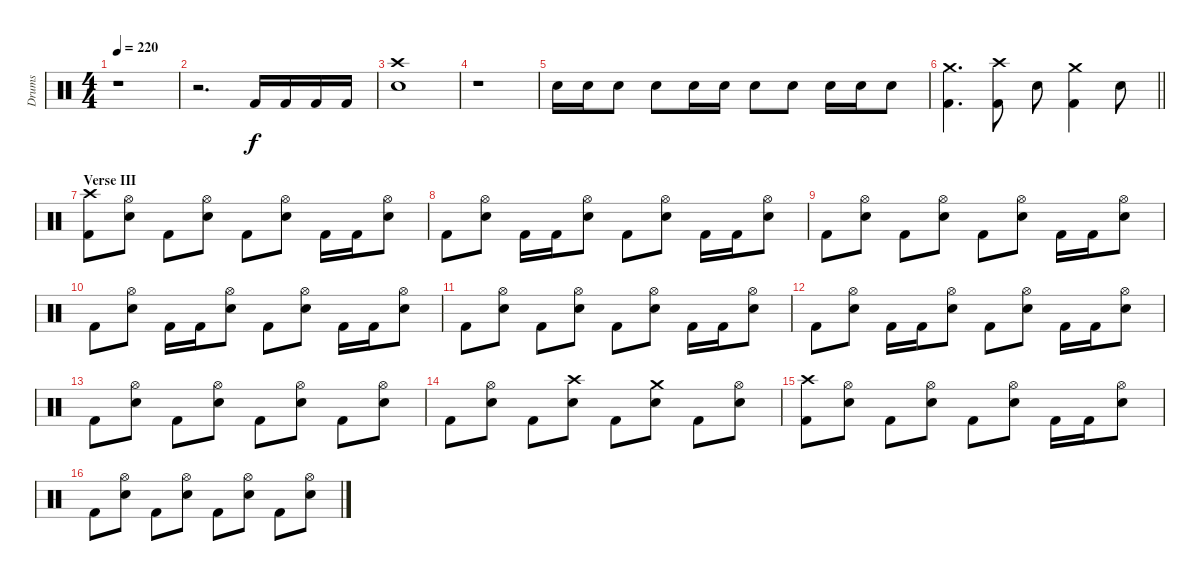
\track ("Drums" "Drums") {instrument percussion}
\staff {score}
\articulation defaults
\ts (4 4)
\tempo 220
\clef neutral
\ks c
r.1{dy f} |
r.2{d} "Kick (hit) 2".16 "Kick (hit) 2".16 "Kick (hit) 2".16 "Kick (hit) 2".16 |
("Crash high (hit)" "Snare (hit) 2").1 |
r.1 |
"Snare (hit) 2".16 "Snare (hit) 2".16 "Snare (hit) 2".8 "Snare (hit) 2".8 "Snare (hit) 2".16 "Snare (hit) 2".16 "Snare (hit) 2".8 "Snare (hit) 2".8 "Snare (hit) 2".16 "Snare (hit) 2".16 "Snare (hit) 2".8 |
\barLineRight lightlight
("Crash medium (hit)" "Kick (hit) 2").4{d} ("Crash high (hit)" "Kick (hit) 2").8 "Snare (hit) 2".8 ("Crash medium (hit)" "Kick (hit) 2").4 "Snare (hit) 2".8 |
\section ("" "Verse III")
("Crash high (hit)" "Kick (hit) 2").8 ("Hi-Hat (open)" "Snare (hit) 2").8 "Kick (hit) 2".8 ("Hi-Hat (open)" "Snare (hit) 2").8 "Kick (hit) 2".8 ("Hi-Hat (open)" "Snare (hit) 2").8 "Kick (hit) 2".16 "Kick (hit) 2".16 ("Hi-Hat (open)" "Snare (hit) 2").8 |
"Kick (hit) 2".8 ("Hi-Hat (open)" "Snare (hit) 2").8 "Kick (hit) 2".16 "Kick (hit) 2".16 ("Hi-Hat (open)" "Snare (hit) 2").8 "Kick (hit) 2".8 ("Hi-Hat (open)" "Snare (hit) 2").8 "Kick (hit) 2".16 "Kick (hit) 2".16 ("Hi-Hat (open)" "Snare (hit) 2").8 |
"Kick (hit) 2".8 ("Hi-Hat (open)" "Snare (hit) 2").8 "Kick (hit) 2".8 ("Hi-Hat (open)" "Snare (hit) 2").8 "Kick (hit) 2".8 ("Hi-Hat (open)" "Snare (hit) 2").8 "Kick (hit) 2".16 "Kick (hit) 2".16 ("Hi-Hat (open)" "Snare (hit) 2").8 |
"Kick (hit) 2".8 ("Hi-Hat (open)" "Snare (hit) 2").8 "Kick (hit) 2".16 "Kick (hit) 2".16 ("Hi-Hat (open)" "Snare (hit) 2").8 "Kick (hit) 2".8 ("Hi-Hat (open)" "Snare (hit) 2").8 "Kick (hit) 2".16 "Kick (hit) 2".16 ("Hi-Hat (open)" "Snare (hit) 2").8 |
"Kick (hit) 2".8 ("Hi-Hat (open)" "Snare (hit) 2").8 "Kick (hit) 2".8 ("Hi-Hat (open)" "Snare (hit) 2").8 "Kick (hit) 2".8 ("Hi-Hat (open)" "Snare (hit) 2").8 "Kick (hit) 2".16 "Kick (hit) 2".16 ("Hi-Hat (open)" "Snare (hit) 2").8 |
"Kick (hit) 2".8 ("Hi-Hat (open)" "Snare (hit) 2").8 "Kick (hit) 2".16 "Kick (hit) 2".16 ("Hi-Hat (open)" "Snare (hit) 2").8 "Kick (hit) 2".8 ("Hi-Hat (open)" "Snare (hit) 2").8 "Kick (hit) 2".16 "Kick (hit) 2".16 ("Hi-Hat (open)" "Snare (hit) 2").8 |
"Kick (hit) 2".8 ("Hi-Hat (open)" "Snare (hit) 2").8 "Kick (hit) 2".8 ("Hi-Hat (open)" "Snare (hit) 2").8 "Kick (hit) 2".8 ("Hi-Hat (open)" "Snare (hit) 2").8 "Kick (hit) 2".8 ("Hi-Hat (open)" "Snare (hit) 2").8 |
"Kick (hit) 2".8 ("Hi-Hat (open)" "Snare (hit) 2").8 "Kick (hit) 2".8 ("Crash high (hit)" "Snare (hit) 2").8 "Kick (hit) 2".8 ("Crash medium (hit)" "Snare (hit) 2").8 "Kick (hit) 2".8 ("Hi-Hat (open)" "Snare (hit) 2").8 |
("Crash high (hit)" "Kick (hit) 2").8 ("Hi-Hat (open)" "Snare (hit) 2").8 "Kick (hit) 2".8 ("Hi-Hat (open)" "Snare (hit) 2").8 "Kick (hit) 2".8 ("Hi-Hat (open)" "Snare (hit) 2").8 "Kick (hit) 2".16 "Kick (hit) 2".16 ("Hi-Hat (open)" "Snare (hit) 2").8 |
"Kick (hit) 2".8 ("Hi-Hat (open)" "Snare (hit) 2").8 "Kick (hit) 2".8 ("Hi-Hat (open)" "Snare (hit) 2").8 "Kick (hit) 2".8 ("Hi-Hat (open)" "Snare (hit) 2").8 "Kick (hit) 2".8 ("Hi-Hat (open)" "Snare (hit) 2").8
